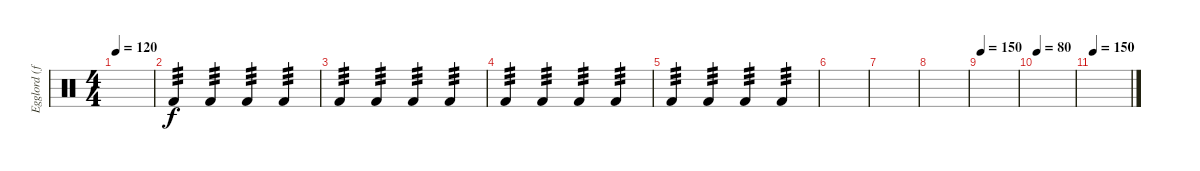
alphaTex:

\track ("Egglord (fills etc)" "Egglord (f") {instrument percussion}
\staff {score}
\articulation defaults
\ts (4 4)
\tempo 120
\clef neutral
\ks c
|
"Kick (hit) 2".4{tp 3} "Kick (hit) 2".4{tp 3} "Kick (hit) 2".4{tp 3} "Kick (hit) 2".4{tp 3} |
"Kick (hit) 2".4{tp 3} "Kick (hit) 2".4{tp 3} "Kick (hit) 2".4{tp 3} "Kick (hit) 2".4{tp 3} |
"Kick (hit) 2".4{tp 3} "Kick (hit) 2".4{tp 3} "Kick (hit) 2".4{tp 3} "Kick (hit) 2".4{tp 3} |
"Kick (hit) 2".4{tp 3} "Kick (hit) 2".4{tp 3} "Kick (hit) 2".4{tp 3} "Kick (hit) 2".4{tp 3} |
|
|
|
\tempo 150
|
\tempo 80
|
\tempo 150
